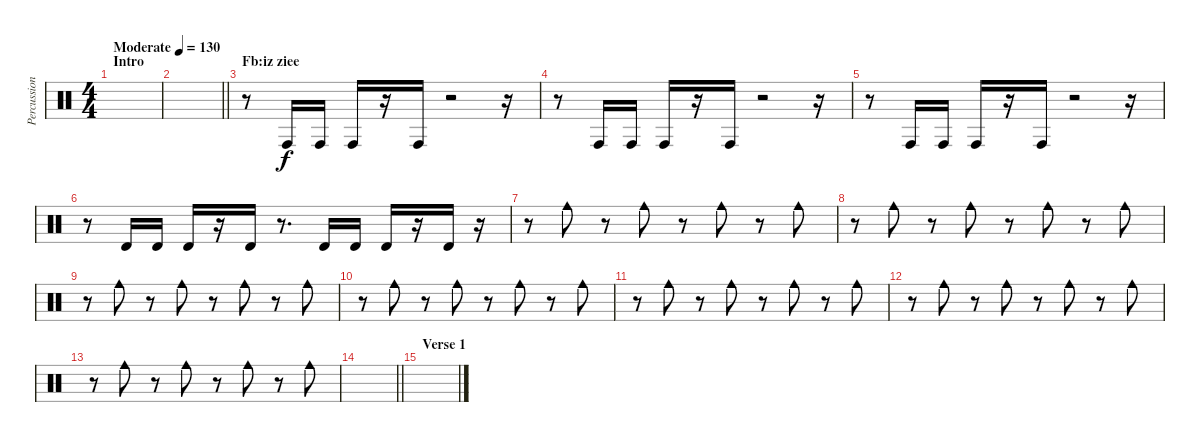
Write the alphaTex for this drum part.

\track ("Percussion 2" "Percussion") {instrument percussion}
\staff {score}
\articulation defaults
\ts (4 4)
\section ("" "Intro")
\tempo (130 "Moderate")
\clef neutral
\ks c
|
\barLineRight lightlight
|
\section ("" "Fb:iz ziee")
r.8 "Conga high (hit)".16 "Conga high (hit)".16 "Conga high (hit)".16 r.16 "Conga high (hit)".16 r.2 r.16 |
r.8 "Conga high (hit)".16 "Conga high (hit)".16 "Conga high (hit)".16 r.16 "Conga high (hit)".16 r.2 r.16 |
r.8 "Conga high (hit)".16 "Conga high (hit)".16 "Conga high (hit)".16 r.16 "Conga high (hit)".16 r.2 r.16 |
r.8 "Timbale high (hit)".16 "Timbale high (hit)".16 "Timbale high (hit)".16 r.16 "Timbale high (hit)".16 r.8{d} "Timbale high (hit)".16 "Timbale high (hit)".16 "Timbale high (hit)".16 r.16 "Timbale high (hit)".16 r.16 |
r.8 "Cowbell medium (hit)".8 r.8 "Cowbell medium (hit)".8 r.8 "Cowbell medium (hit)".8 r.8 "Cowbell medium (hit)".8 |
r.8 "Cowbell medium (hit)".8 r.8 "Cowbell medium (hit)".8 r.8 "Cowbell medium (hit)".8 r.8 "Cowbell medium (hit)".8 |
r.8 "Cowbell medium (hit)".8 r.8 "Cowbell medium (hit)".8 r.8 "Cowbell medium (hit)".8 r.8 "Cowbell medium (hit)".8 |
r.8 "Cowbell medium (hit)".8 r.8 "Cowbell medium (hit)".8 r.8 "Cowbell medium (hit)".8 r.8 "Cowbell medium (hit)".8 |
r.8 "Cowbell medium (hit)".8 r.8 "Cowbell medium (hit)".8 r.8 "Cowbell medium (hit)".8 r.8 "Cowbell medium (hit)".8 |
r.8 "Cowbell medium (hit)".8 r.8 "Cowbell medium (hit)".8 r.8 "Cowbell medium (hit)".8 r.8 "Cowbell medium (hit)".8 |
r.8 "Cowbell medium (hit)".8 r.8 "Cowbell medium (hit)".8 r.8 "Cowbell medium (hit)".8 r.8 "Cowbell medium (hit)".8 |
\barLineRight lightlight
|
\section ("" "Verse 1")
